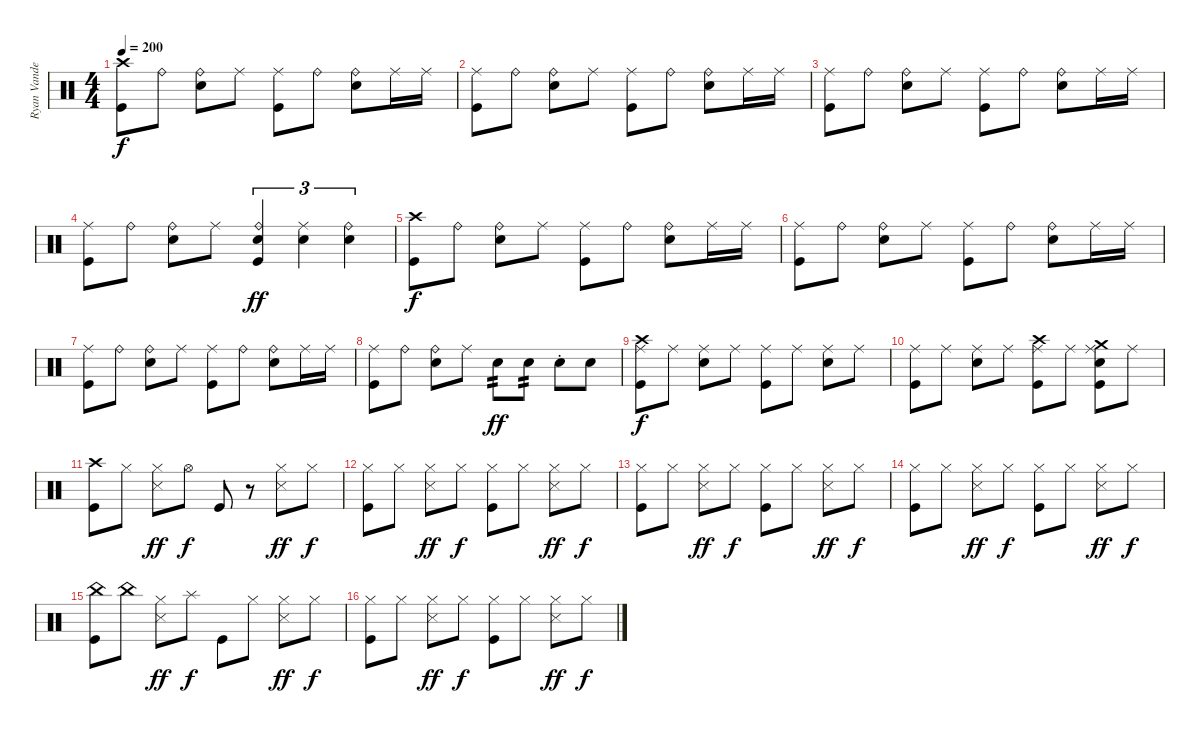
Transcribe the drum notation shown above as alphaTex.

\track ("Ryan Vandebergh" "Ryan Vande") {instrument percussion}
\staff {score}
\articulation defaults
\ts (4 4)
\tempo 200
\clef neutral
\ks c
("Crash high (hit)" "Kick (hit)").8{dy f} "Ride (bell)".8 ("Ride (bell)" "Electric Snare (hit)").8 "Ride (middle)".8 ("Ride (middle)" "Kick (hit)").8 "Ride (bell)".8 ("Ride (bell)" "Electric Snare (hit)").8 "Ride (middle)".16 "Ride (middle)".16 |
("Ride (middle)" "Kick (hit)").8 "Ride (bell)".8 ("Ride (bell)" "Electric Snare (hit)").8 "Ride (middle)".8 ("Ride (middle)" "Kick (hit)").8 "Ride (bell)".8 ("Ride (bell)" "Electric Snare (hit)").8 "Ride (middle)".16 "Ride (middle)".16 |
("Ride (middle)" "Kick (hit)").8 "Ride (bell)".8 ("Ride (bell)" "Electric Snare (hit)").8 "Ride (middle)".8 ("Ride (middle)" "Kick (hit)").8 "Ride (bell)".8 ("Ride (bell)" "Electric Snare (hit)").8 "Ride (middle)".16 "Ride (middle)".16 |
("Ride (middle)" "Kick (hit)").8 "Ride (bell)".8 ("Ride (bell)" "Electric Snare (hit)").8 "Ride (middle)".8 ("Ride (bell)" "Electric Snare (hit)" "Kick (hit)").4{tu (3 2) dy ff} ("Ride (middle)" "Electric Snare (hit)").4{tu (3 2)} ("Ride (bell)" "Electric Snare (hit)").4{tu (3 2)} |
("Crash high (hit)" "Kick (hit)").8{dy f} "Ride (bell)".8 ("Ride (bell)" "Electric Snare (hit)").8 "Ride (middle)".8 ("Ride (middle)" "Kick (hit)").8 "Ride (bell)".8 ("Ride (bell)" "Electric Snare (hit)").8 "Ride (middle)".16 "Ride (middle)".16 |
("Ride (middle)" "Kick (hit)").8 "Ride (bell)".8 ("Ride (bell)" "Electric Snare (hit)").8 "Ride (middle)".8 ("Ride (middle)" "Kick (hit)").8 "Ride (bell)".8 ("Ride (bell)" "Electric Snare (hit)").8 "Ride (middle)".16 "Ride (middle)".16 |
("Ride (middle)" "Kick (hit)").8 "Ride (bell)".8 ("Ride (bell)" "Electric Snare (hit)").8 "Ride (middle)".8 ("Ride (middle)" "Kick (hit)").8 "Ride (bell)".8 ("Ride (bell)" "Electric Snare (hit)").8 "Ride (middle)".16 "Ride (middle)".16 |
("Ride (middle)" "Kick (hit)").8 "Ride (bell)".8 ("Ride (bell)" "Electric Snare (hit)").8 "Ride (middle)".8 "Electric Snare (hit)".8{tp 2 dy ff} "Electric Snare (hit)".8{tp 2} "Electric Snare (hit)"{st}.8 "Electric Snare (hit)".8 |
("Crash high (hit)" "Ride (middle)" "Kick (hit)").8{dy f} "Ride (middle)".8 ("Ride (middle)" "Electric Snare (hit)").8 "Ride (middle)".8 ("Ride (middle)" "Kick (hit)").8 "Ride (middle)".8 ("Ride (middle)" "Electric Snare (hit)").8 "Ride (middle)".8 |
("Ride (middle)" "Kick (hit)").8 "Ride (middle)".8 ("Ride (middle)" "Electric Snare (hit)").8 "Ride (middle)".8 ("Crash high (hit)" "Ride (middle)" "Kick (hit)").8 "Ride (middle)".8 ("Crash medium (hit)" "Ride (middle)" "Electric Snare (hit)" "Kick (hit)").8 "Ride (middle)".8 |
("Crash high (hit)" "Kick (hit)").8 "Hi-Hat (closed)".8 ("Hi-Hat (closed)" "Snare (side stick) 3").8{dy ff} "Hi-Hat (open)".8{dy f} "Kick (hit)".8 r.8 ("Hi-Hat (closed)" "Snare (side stick) 3").8{dy ff} "Hi-Hat (closed)".8{dy f} |
("Hi-Hat (closed)" "Kick (hit)").8 "Hi-Hat (closed)".8 ("Hi-Hat (closed)" "Snare (side stick) 3").8{dy ff} "Hi-Hat (closed)".8{dy f} ("Hi-Hat (closed)" "Kick (hit)").8 "Hi-Hat (closed)".8 ("Hi-Hat (closed)" "Snare (side stick) 3").8{dy ff} "Hi-Hat (closed)".8{dy f} |
("Hi-Hat (closed)" "Kick (hit)").8 "Hi-Hat (closed)".8 ("Hi-Hat (closed)" "Snare (side stick) 3").8{dy ff} "Hi-Hat (closed)".8{dy f} ("Hi-Hat (closed)" "Kick (hit)").8 "Hi-Hat (closed)".8 ("Hi-Hat (closed)" "Snare (side stick) 3").8{dy ff} "Hi-Hat (closed)".8{dy f} |
("Hi-Hat (closed)" "Kick (hit)").8 "Hi-Hat (closed)".8 ("Hi-Hat (closed)" "Snare (side stick) 3").8{dy ff} "Hi-Hat (closed)".8{dy f} ("Hi-Hat (closed)" "Kick (hit)").8 "Hi-Hat (closed)".8 ("Hi-Hat (closed)" "Snare (side stick) 3").8{dy ff} "Hi-Hat (closed)".8{dy f} |
("China (hit)" "Kick (hit)").8 "China (hit)".8 ("Hi-Hat (closed)" "Snare (side stick) 3").8{dy ff} "Splash (hit)".8{dy f} "Kick (hit)".8 "Hi-Hat (closed)".8 ("Hi-Hat (closed)" "Snare (side stick) 3").8{dy ff} "Hi-Hat (closed)".8{dy f} |
("Hi-Hat (closed)" "Kick (hit)").8 "Hi-Hat (closed)".8 ("Hi-Hat (closed)" "Snare (side stick) 3").8{dy ff} "Hi-Hat (closed)".8{dy f} ("Hi-Hat (closed)" "Kick (hit)").8 "Hi-Hat (closed)".8 ("Hi-Hat (closed)" "Snare (side stick) 3").8{dy ff} "Hi-Hat (closed)".8{dy f}
